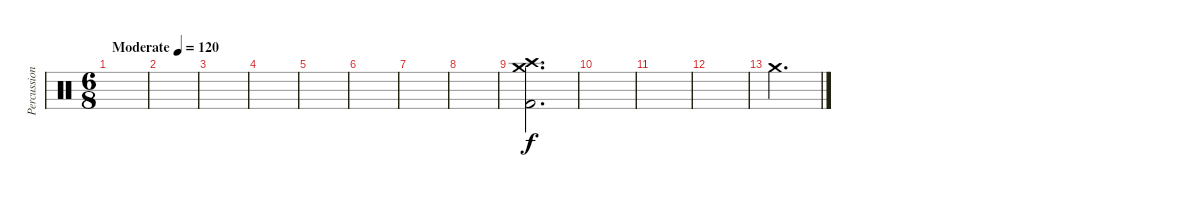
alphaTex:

\track ("Percussion" "Percussion") {instrument percussion}
\staff {score}
\articulation defaults
\ts (6 8)
\tempo (120 "Moderate")
\clef neutral
\ks c
|
|
|
|
|
|
|
|
("Crash high (hit)" "Crash medium (hit)" "Kick (hit) 2").2{d} |
|
|
|
"Crash medium (hit)".2{d}
